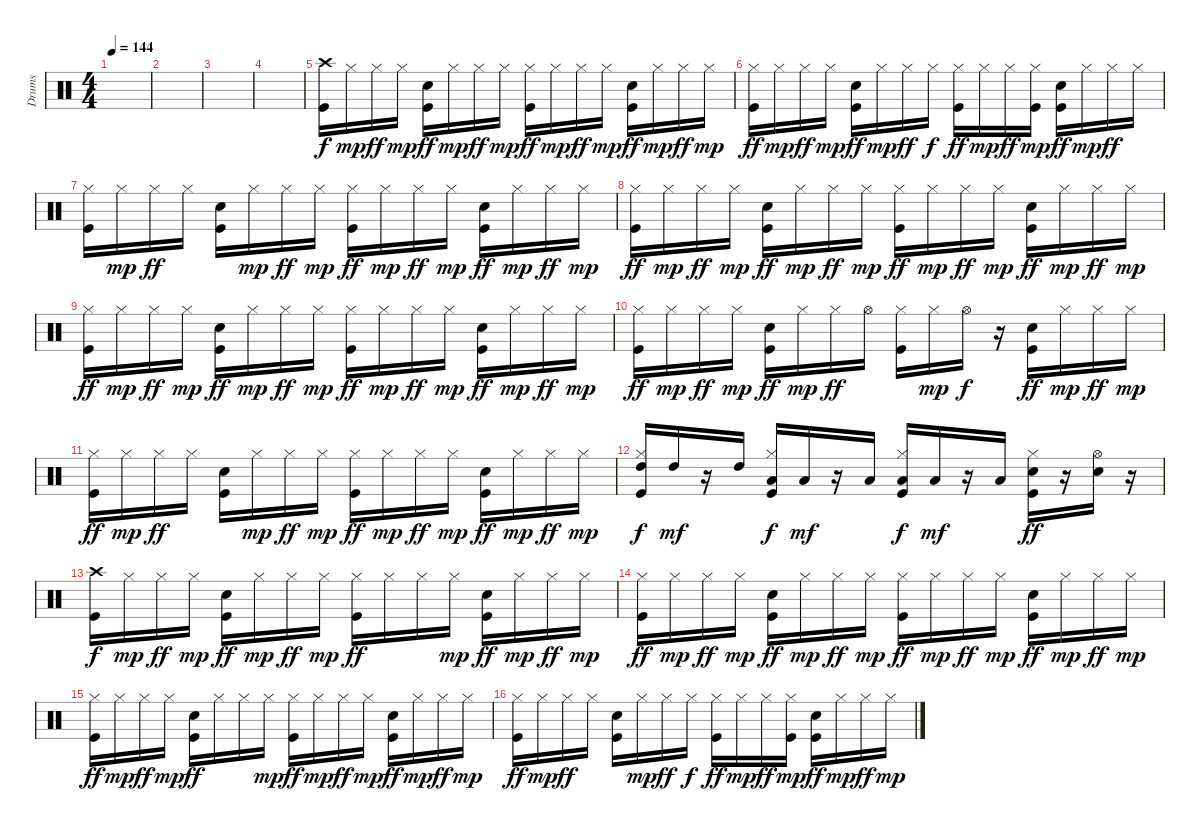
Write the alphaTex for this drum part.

\track ("Drums" "Drums") {instrument percussion}
\staff {score}
\articulation defaults
\ts (4 4)
\tempo 144
\clef neutral
\ks c
|
|
|
|
("Kick (hit)" "Crash high (hit)").16 "Hi-Hat (closed)".16{dy mp} "Hi-Hat (closed)".16{dy ff} "Hi-Hat (closed)".16{dy mp} ("Kick (hit)" "Snare (hit) 2").16{dy ff} "Hi-Hat (closed)".16{dy mp} "Hi-Hat (closed)".16{dy ff} "Hi-Hat (closed)".16{dy mp} ("Kick (hit)" "Hi-Hat (closed)").16{dy ff} "Hi-Hat (closed)".16{dy mp} "Hi-Hat (closed)".16{dy ff} "Hi-Hat (closed)".16{dy mp} ("Kick (hit)" "Snare (hit) 2").16{dy ff} "Hi-Hat (closed)".16{dy mp} "Hi-Hat (closed)".16{dy ff} "Hi-Hat (closed)".16{dy mp} |
("Kick (hit)" "Hi-Hat (closed)").16{dy ff} "Hi-Hat (closed)".16{dy mp} "Hi-Hat (closed)".16{dy ff} "Hi-Hat (closed)".16{dy mp} ("Kick (hit)" "Snare (hit) 2").16{dy ff} "Hi-Hat (closed)".16{dy mp} "Hi-Hat (closed)".16{dy ff} "Hi-Hat (closed)".16{dy f} ("Kick (hit)" "Hi-Hat (closed)").16{dy ff} "Hi-Hat (closed)".16{dy mp} "Hi-Hat (closed)".16{dy ff} ("Kick (hit)" "Hi-Hat (closed)").16{dy mp} ("Kick (hit)" "Snare (hit) 2").16{dy ff} "Hi-Hat (closed)".16{dy mp} "Hi-Hat (closed)".16{dy ff} "Hi-Hat (closed)".16 |
("Kick (hit)" "Hi-Hat (closed)").16 "Hi-Hat (closed)".16{dy mp} "Hi-Hat (closed)".16{dy ff} "Hi-Hat (closed)".16 ("Kick (hit)" "Snare (hit) 2").16 "Hi-Hat (closed)".16{dy mp} "Hi-Hat (closed)".16{dy ff} "Hi-Hat (closed)".16{dy mp} ("Kick (hit)" "Hi-Hat (closed)").16{dy ff} "Hi-Hat (closed)".16{dy mp} "Hi-Hat (closed)".16{dy ff} "Hi-Hat (closed)".16{dy mp} ("Kick (hit)" "Snare (hit) 2").16{dy ff} "Hi-Hat (closed)".16{dy mp} "Hi-Hat (closed)".16{dy ff} "Hi-Hat (closed)".16{dy mp} |
("Kick (hit)" "Hi-Hat (closed)").16{dy ff} "Hi-Hat (closed)".16{dy mp} "Hi-Hat (closed)".16{dy ff} "Hi-Hat (closed)".16{dy mp} ("Kick (hit)" "Snare (hit) 2").16{dy ff} "Hi-Hat (closed)".16{dy mp} "Hi-Hat (closed)".16{dy ff} "Hi-Hat (closed)".16{dy mp} ("Kick (hit)" "Hi-Hat (closed)").16{dy ff} "Hi-Hat (closed)".16{dy mp} "Hi-Hat (closed)".16{dy ff} "Hi-Hat (closed)".16{dy mp} ("Kick (hit)" "Snare (hit) 2").16{dy ff} "Hi-Hat (closed)".16{dy mp} "Hi-Hat (closed)".16{dy ff} "Hi-Hat (closed)".16{dy mp} |
("Kick (hit)" "Hi-Hat (closed)").16{dy ff} "Hi-Hat (closed)".16{dy mp} "Hi-Hat (closed)".16{dy ff} "Hi-Hat (closed)".16{dy mp} ("Kick (hit)" "Snare (hit) 2").16{dy ff} "Hi-Hat (closed)".16{dy mp} "Hi-Hat (closed)".16{dy ff} "Hi-Hat (closed)".16{dy mp} ("Kick (hit)" "Hi-Hat (closed)").16{dy ff} "Hi-Hat (closed)".16{dy mp} "Hi-Hat (closed)".16{dy ff} "Hi-Hat (closed)".16{dy mp} ("Kick (hit)" "Snare (hit) 2").16{dy ff} "Hi-Hat (closed)".16{dy mp} "Hi-Hat (closed)".16{dy ff} "Hi-Hat (closed)".16{dy mp} |
("Kick (hit)" "Hi-Hat (closed)").16{dy ff} "Hi-Hat (closed)".16{dy mp} "Hi-Hat (closed)".16{dy ff} "Hi-Hat (closed)".16{dy mp} ("Kick (hit)" "Snare (hit) 2").16{dy ff} "Hi-Hat (closed)".16{dy mp} "Hi-Hat (closed)".16{dy ff} "Hi-Hat (open)".16 ("Kick (hit)" "Hi-Hat (closed)").16 "Hi-Hat (closed)".16{dy mp} "Hi-Hat (open)".16{dy f} r.16 ("Kick (hit)" "Snare (hit) 2").16{dy ff} "Hi-Hat (closed)".16{dy mp} "Hi-Hat (closed)".16{dy ff} "Hi-Hat (closed)".16{dy mp} |
("Kick (hit)" "Hi-Hat (closed)").16{dy ff} "Hi-Hat (closed)".16{dy mp} "Hi-Hat (closed)".16{dy ff} "Hi-Hat (closed)".16 ("Kick (hit)" "Snare (hit) 2").16 "Hi-Hat (closed)".16{dy mp} "Hi-Hat (closed)".16{dy ff} "Hi-Hat (closed)".16{dy mp} ("Kick (hit)" "Hi-Hat (closed)").16{dy ff} "Hi-Hat (closed)".16{dy mp} "Hi-Hat (closed)".16{dy ff} "Hi-Hat (closed)".16{dy mp} ("Kick (hit)" "Snare (hit) 2").16{dy ff} "Hi-Hat (closed)".16{dy mp} "Hi-Hat (closed)".16{dy ff} "Hi-Hat (closed)".16{dy mp} |
("Kick (hit)" "Hi-Hat (closed)" "High Tom (hit)").16{dy f} "High Tom (hit)".16{dy mf} r.16 "High Tom (hit)".16 ("Kick (hit)" "Hi-Hat (closed)" "Low Tom (hit)").16{dy f} "Low Tom (hit)".16{dy mf} r.16 "Low Tom (hit)".16 ("Kick (hit)" "Low Floor Tom (hit)" "Hi-Hat (closed)").16{dy f} "Low Floor Tom (hit)".16{dy mf} r.16 "Low Floor Tom (hit)".16 ("Kick (hit)" "Snare (hit) 2" "Hi-Hat (closed)").16{dy ff} r.16 ("Snare (hit) 2" "Hi-Hat (open)").16 r.16 |
("Kick (hit)" "Crash high (hit)").16{dy f} "Hi-Hat (closed)".16{dy mp} "Hi-Hat (closed)".16{dy ff} "Hi-Hat (closed)".16{dy mp} ("Kick (hit)" "Snare (hit) 2").16{dy ff} "Hi-Hat (closed)".16{dy mp} "Hi-Hat (closed)".16{dy ff} "Hi-Hat (closed)".16{dy mp} ("Kick (hit)" "Hi-Hat (closed)").16{dy ff} "Hi-Hat (closed)".16 "Hi-Hat (closed)".16 "Hi-Hat (closed)".16{dy mp} ("Kick (hit)" "Snare (hit) 2").16{dy ff} "Hi-Hat (closed)".16{dy mp} "Hi-Hat (closed)".16{dy ff} "Hi-Hat (closed)".16{dy mp} |
("Kick (hit)" "Hi-Hat (closed)").16{dy ff} "Hi-Hat (closed)".16{dy mp} "Hi-Hat (closed)".16{dy ff} "Hi-Hat (closed)".16{dy mp} ("Kick (hit)" "Snare (hit) 2").16{dy ff} "Hi-Hat (closed)".16{dy mp} "Hi-Hat (closed)".16{dy ff} "Hi-Hat (closed)".16{dy mp} ("Kick (hit)" "Hi-Hat (closed)").16{dy ff} "Hi-Hat (closed)".16{dy mp} "Hi-Hat (closed)".16{dy ff} "Hi-Hat (closed)".16{dy mp} ("Kick (hit)" "Snare (hit) 2").16{dy ff} "Hi-Hat (closed)".16{dy mp} "Hi-Hat (closed)".16{dy ff} "Hi-Hat (closed)".16{dy mp} |
("Kick (hit)" "Hi-Hat (closed)").16{dy ff} "Hi-Hat (closed)".16{dy mp} "Hi-Hat (closed)".16{dy ff} "Hi-Hat (closed)".16{dy mp} ("Kick (hit)" "Snare (hit) 2").16{dy ff} "Hi-Hat (closed)".16 "Hi-Hat (closed)".16 "Hi-Hat (closed)".16{dy mp} ("Kick (hit)" "Hi-Hat (closed)").16{dy ff} "Hi-Hat (closed)".16{dy mp} "Hi-Hat (closed)".16{dy ff} "Hi-Hat (closed)".16{dy mp} ("Kick (hit)" "Snare (hit) 2").16{dy ff} "Hi-Hat (closed)".16{dy mp} "Hi-Hat (closed)".16{dy ff} "Hi-Hat (closed)".16{dy mp} |
("Kick (hit)" "Hi-Hat (closed)").16{dy ff} "Hi-Hat (closed)".16{dy mp} "Hi-Hat (closed)".16{dy ff} "Hi-Hat (closed)".16 ("Kick (hit)" "Snare (hit) 2").16 "Hi-Hat (closed)".16{dy mp} "Hi-Hat (closed)".16{dy ff} "Hi-Hat (closed)".16{dy f} ("Kick (hit)" "Hi-Hat (closed)").16{dy ff} "Hi-Hat (closed)".16{dy mp} "Hi-Hat (closed)".16{dy ff} ("Kick (hit)" "Hi-Hat (closed)").16{dy mp} ("Kick (hit)" "Snare (hit) 2").16{dy ff} "Hi-Hat (closed)".16{dy mp} "Hi-Hat (closed)".16{dy ff} "Hi-Hat (closed)".16{dy mp}
